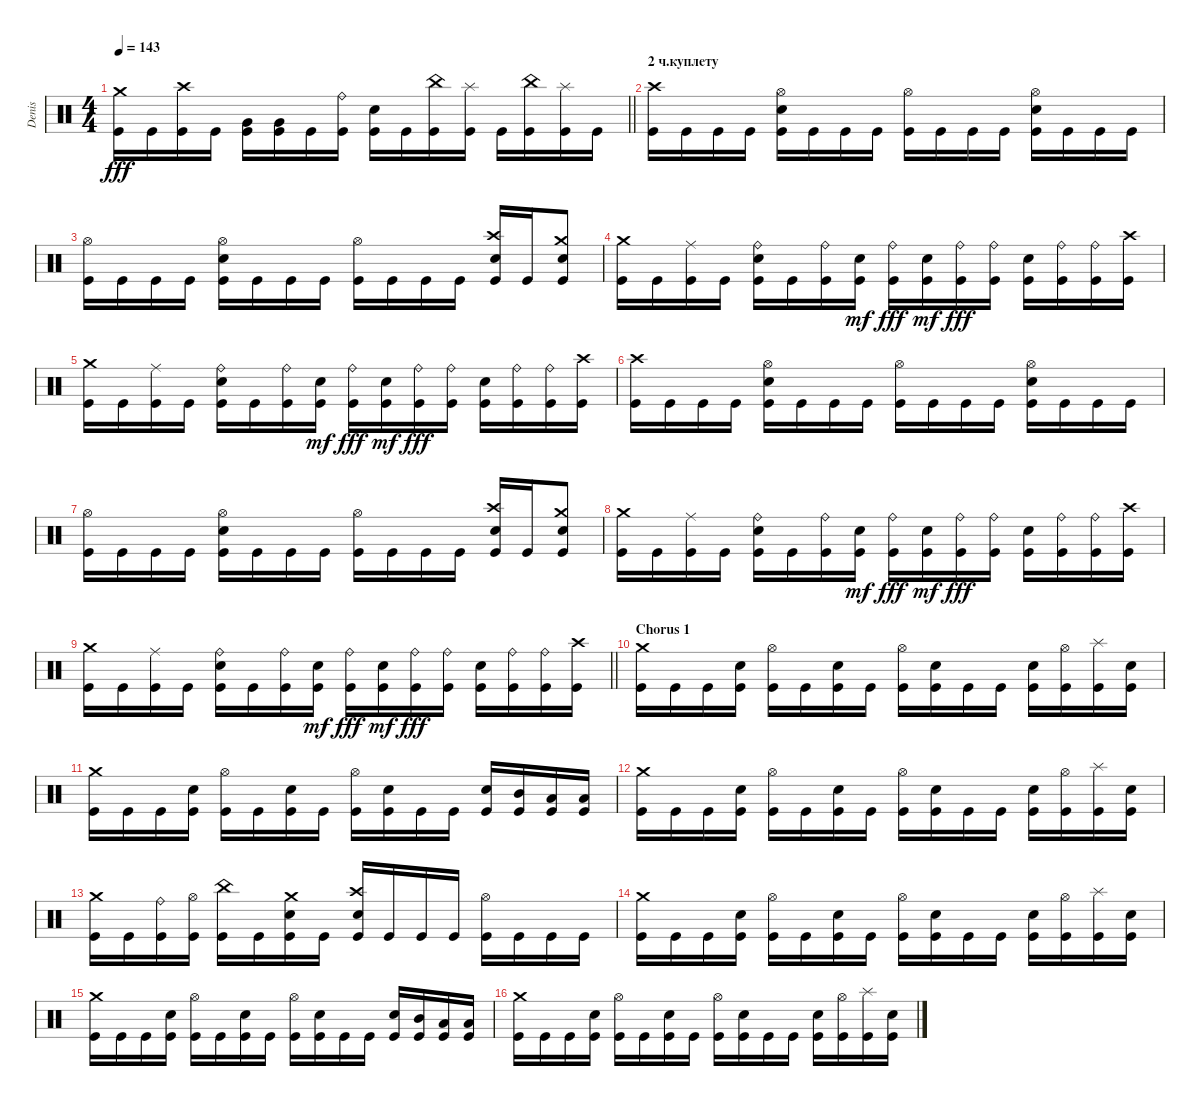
\track ("Denis" "Denis") {instrument percussion}
\staff {score}
\articulation defaults
\ts (4 4)
\tempo 143
\clef neutral
\barLineRight lightlight
\ks c
("Kick (hit)" "Crash medium (hit)").16{dy fff} "Kick (hit)".16 ("Kick (hit)" "Crash high (hit)").16 "Kick (hit)".16 ("Kick (hit)" "Very Low Tom (hit)").16 ("Kick (hit)" "Very Low Tom (hit)").16 "Kick (hit)".16 ("Kick (hit)" "Ride (bell)").16 ("Kick (hit)" "Electric Snare (hit)").16 "Kick (hit)".16 ("Kick (hit)" "China (hit)").16 ("Kick (hit)" "Splash (hit)").16 "Kick (hit)".16 ("Kick (hit)" "China (hit)").16 ("Kick (hit)" "Splash (hit)").16 "Kick (hit)".16 |
\section ("" "2 ч.куплету")
("Kick (hit)" "Crash high (hit)").16 "Kick (hit)".16 "Kick (hit)".16 "Kick (hit)".16 ("Kick (hit)" "Hi-Hat (open)" "Electric Snare (hit)").16 "Kick (hit)".16 "Kick (hit)".16 "Kick (hit)".16 ("Kick (hit)" "Hi-Hat (open)").16 "Kick (hit)".16 "Kick (hit)".16 "Kick (hit)".16 ("Kick (hit)" "Hi-Hat (open)" "Electric Snare (hit)").16 "Kick (hit)".16 "Kick (hit)".16 "Kick (hit)".16 |
("Kick (hit)" "Hi-Hat (open)").16 "Kick (hit)".16 "Kick (hit)".16 "Kick (hit)".16 ("Kick (hit)" "Hi-Hat (open)" "Electric Snare (hit)").16 "Kick (hit)".16 "Kick (hit)".16 "Kick (hit)".16 ("Kick (hit)" "Hi-Hat (open)").16 "Kick (hit)".16 "Kick (hit)".16 "Kick (hit)".16 ("Kick (hit)" "Electric Snare (hit)" "Crash high (hit)").16 "Kick (hit)".16 ("Kick (hit)" "Electric Snare (hit)" "Crash medium (hit)").8 |
("Kick (hit)" "Crash medium (hit)").16 "Kick (hit)".16 ("Kick (hit)" "Ride (middle)").16 "Kick (hit)".16 ("Kick (hit)" "Electric Snare (hit)" "Ride (bell)").16 "Kick (hit)".16 ("Kick (hit)" "Ride (bell)").16 ("Kick (hit)" "Electric Snare (hit)").16{dy mf} ("Kick (hit)" "Ride (bell)").16{dy fff} ("Kick (hit)" "Electric Snare (hit)").16{dy mf} ("Kick (hit)" "Ride (bell)").16{dy fff} ("Kick (hit)" "Ride (bell)").16 ("Kick (hit)" "Electric Snare (hit)").16 ("Kick (hit)" "Ride (bell)").16 ("Kick (hit)" "Ride (bell)").16 ("Kick (hit)" "Crash high (hit)").16 |
("Kick (hit)" "Crash medium (hit)").16 "Kick (hit)".16 ("Kick (hit)" "Ride (middle)").16 "Kick (hit)".16 ("Kick (hit)" "Electric Snare (hit)" "Ride (bell)").16 "Kick (hit)".16 ("Kick (hit)" "Ride (bell)").16 ("Kick (hit)" "Electric Snare (hit)").16{dy mf} ("Kick (hit)" "Ride (bell)").16{dy fff} ("Kick (hit)" "Electric Snare (hit)").16{dy mf} ("Kick (hit)" "Ride (bell)").16{dy fff} ("Kick (hit)" "Ride (bell)").16 ("Kick (hit)" "Electric Snare (hit)").16 ("Kick (hit)" "Ride (bell)").16 ("Kick (hit)" "Ride (bell)").16 ("Kick (hit)" "Crash high (hit)").16 |
("Kick (hit)" "Crash high (hit)").16 "Kick (hit)".16 "Kick (hit)".16 "Kick (hit)".16 ("Kick (hit)" "Hi-Hat (open)" "Electric Snare (hit)").16 "Kick (hit)".16 "Kick (hit)".16 "Kick (hit)".16 ("Kick (hit)" "Hi-Hat (open)").16 "Kick (hit)".16 "Kick (hit)".16 "Kick (hit)".16 ("Kick (hit)" "Hi-Hat (open)" "Electric Snare (hit)").16 "Kick (hit)".16 "Kick (hit)".16 "Kick (hit)".16 |
("Kick (hit)" "Hi-Hat (open)").16 "Kick (hit)".16 "Kick (hit)".16 "Kick (hit)".16 ("Kick (hit)" "Hi-Hat (open)" "Electric Snare (hit)").16 "Kick (hit)".16 "Kick (hit)".16 "Kick (hit)".16 ("Kick (hit)" "Hi-Hat (open)").16 "Kick (hit)".16 "Kick (hit)".16 "Kick (hit)".16 ("Kick (hit)" "Electric Snare (hit)" "Crash high (hit)").16 "Kick (hit)".16 ("Kick (hit)" "Electric Snare (hit)" "Crash medium (hit)").8 |
("Kick (hit)" "Crash medium (hit)").16 "Kick (hit)".16 ("Kick (hit)" "Ride (middle)").16 "Kick (hit)".16 ("Kick (hit)" "Electric Snare (hit)" "Ride (bell)").16 "Kick (hit)".16 ("Kick (hit)" "Ride (bell)").16 ("Kick (hit)" "Electric Snare (hit)").16{dy mf} ("Kick (hit)" "Ride (bell)").16{dy fff} ("Kick (hit)" "Electric Snare (hit)").16{dy mf} ("Kick (hit)" "Ride (bell)").16{dy fff} ("Kick (hit)" "Ride (bell)").16 ("Kick (hit)" "Electric Snare (hit)").16 ("Kick (hit)" "Ride (bell)").16 ("Kick (hit)" "Ride (bell)").16 ("Kick (hit)" "Crash high (hit)").16 |
\barLineRight lightlight
("Kick (hit)" "Crash medium (hit)").16 "Kick (hit)".16 ("Kick (hit)" "Ride (middle)").16 "Kick (hit)".16 ("Kick (hit)" "Electric Snare (hit)" "Ride (bell)").16 "Kick (hit)".16 ("Kick (hit)" "Ride (bell)").16 ("Kick (hit)" "Electric Snare (hit)").16{dy mf} ("Kick (hit)" "Ride (bell)").16{dy fff} ("Kick (hit)" "Electric Snare (hit)").16{dy mf} ("Kick (hit)" "Ride (bell)").16{dy fff} ("Kick (hit)" "Ride (bell)").16 ("Kick (hit)" "Electric Snare (hit)").16 ("Kick (hit)" "Ride (bell)").16 ("Kick (hit)" "Ride (bell)").16 ("Kick (hit)" "Crash high (hit)").16 |
\section ("" "Chorus 1")
("Crash medium (hit)" "Kick (hit)").16 "Kick (hit)".16 "Kick (hit)".16 ("Kick (hit)" "Electric Snare (hit)").16 ("Kick (hit)" "Hi-Hat (open)").16 "Kick (hit)".16 ("Kick (hit)" "Electric Snare (hit)").16 "Kick (hit)".16 ("Kick (hit)" "Hi-Hat (open)").16 ("Kick (hit)" "Electric Snare (hit)").16 "Kick (hit)".16 "Kick (hit)".16 ("Kick (hit)" "Electric Snare (hit)").16 ("Kick (hit)" "Hi-Hat (open)").16 ("Kick (hit)" "Splash (hit)").16 ("Kick (hit)" "Electric Snare (hit)").16 |
("Crash medium (hit)" "Kick (hit)").16 "Kick (hit)".16 "Kick (hit)".16 ("Kick (hit)" "Electric Snare (hit)").16 ("Kick (hit)" "Hi-Hat (open)").16 "Kick (hit)".16 ("Kick (hit)" "Electric Snare (hit)").16 "Kick (hit)".16 ("Kick (hit)" "Hi-Hat (open)").16 ("Kick (hit)" "Electric Snare (hit)").16 "Kick (hit)".16 "Kick (hit)".16 ("Kick (hit)" "Electric Snare (hit)").16 ("Kick (hit)" "Mid Tom (hit)").16 ("Kick (hit)" "Low Tom (hit)").16 ("Kick (hit)" "Low Tom (hit)").16 |
("Crash medium (hit)" "Kick (hit)").16 "Kick (hit)".16 "Kick (hit)".16 ("Kick (hit)" "Electric Snare (hit)").16 ("Kick (hit)" "Hi-Hat (open)").16 "Kick (hit)".16 ("Kick (hit)" "Electric Snare (hit)").16 "Kick (hit)".16 ("Kick (hit)" "Hi-Hat (open)").16 ("Kick (hit)" "Electric Snare (hit)").16 "Kick (hit)".16 "Kick (hit)".16 ("Kick (hit)" "Electric Snare (hit)").16 ("Kick (hit)" "Hi-Hat (open)").16 ("Kick (hit)" "Splash (hit)").16 ("Kick (hit)" "Electric Snare (hit)").16 |
("Crash medium (hit)" "Kick (hit)").16 "Kick (hit)".16 ("Kick (hit)" "Ride (bell)").16 ("Kick (hit)" "Hi-Hat (open)").16 ("Kick (hit)" "China (hit)").16 "Kick (hit)".16 ("Kick (hit)" "Electric Snare (hit)" "Crash medium (hit)").16 "Kick (hit)".16 ("Kick (hit)" "Crash high (hit)" "Electric Snare (hit)").16 "Kick (hit)".16 "Kick (hit)".16 "Kick (hit)".16 ("Kick (hit)" "Hi-Hat (open)").16 "Kick (hit)".16 "Kick (hit)".16 "Kick (hit)".16 |
("Crash medium (hit)" "Kick (hit)").16 "Kick (hit)".16 "Kick (hit)".16 ("Kick (hit)" "Electric Snare (hit)").16 ("Kick (hit)" "Hi-Hat (open)").16 "Kick (hit)".16 ("Kick (hit)" "Electric Snare (hit)").16 "Kick (hit)".16 ("Kick (hit)" "Hi-Hat (open)").16 ("Kick (hit)" "Electric Snare (hit)").16 "Kick (hit)".16 "Kick (hit)".16 ("Kick (hit)" "Electric Snare (hit)").16 ("Kick (hit)" "Hi-Hat (open)").16 ("Kick (hit)" "Splash (hit)").16 ("Kick (hit)" "Electric Snare (hit)").16 |
("Crash medium (hit)" "Kick (hit)").16 "Kick (hit)".16 "Kick (hit)".16 ("Kick (hit)" "Electric Snare (hit)").16 ("Kick (hit)" "Hi-Hat (open)").16 "Kick (hit)".16 ("Kick (hit)" "Electric Snare (hit)").16 "Kick (hit)".16 ("Kick (hit)" "Hi-Hat (open)").16 ("Kick (hit)" "Electric Snare (hit)").16 "Kick (hit)".16 "Kick (hit)".16 ("Kick (hit)" "Electric Snare (hit)").16 ("Kick (hit)" "Mid Tom (hit)").16 ("Kick (hit)" "Low Tom (hit)").16 ("Kick (hit)" "Low Tom (hit)").16 |
("Crash medium (hit)" "Kick (hit)").16 "Kick (hit)".16 "Kick (hit)".16 ("Kick (hit)" "Electric Snare (hit)").16 ("Kick (hit)" "Hi-Hat (open)").16 "Kick (hit)".16 ("Kick (hit)" "Electric Snare (hit)").16 "Kick (hit)".16 ("Kick (hit)" "Hi-Hat (open)").16 ("Kick (hit)" "Electric Snare (hit)").16 "Kick (hit)".16 "Kick (hit)".16 ("Kick (hit)" "Electric Snare (hit)").16 ("Kick (hit)" "Hi-Hat (open)").16 ("Kick (hit)" "Splash (hit)").16 ("Kick (hit)" "Electric Snare (hit)").16
